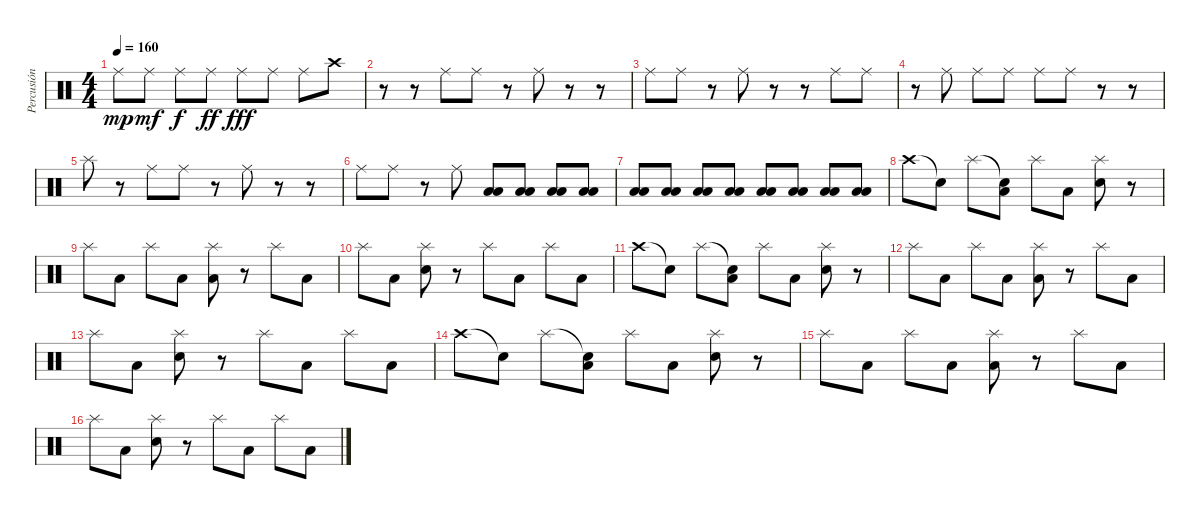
\track ("Percusión" "Percusión") {instrument percussion}
\staff {score}
\articulation defaults
\ts (4 4)
\tempo 160
\clef neutral
\ks c "Ride (middle)".8{dy mp} "Ride (middle)".8{dy mf} "Ride (middle)".8{dy f} "Ride (middle)".8{dy ff} "Ride (middle)".8{dy fff} "Ride (middle)".8 "Ride (middle)".8 "Crash high (hit)".8
|
r.8 r.8 "Ride (middle)".8 "Ride (middle)".8 r.8 "Ride (middle)".8 r.8 r.8 |
"Ride (middle)".8 "Ride (middle)".8 r.8 "Ride (middle)".8 r.8 r.8 "Ride (middle)".8 "Ride (middle)".8 |
r.8 "Ride (middle)".8 "Ride (middle)".8 "Ride (middle)".8 "Ride (middle)".8 "Ride (middle)".8 r.8 r.8 |
"Splash (hit)".8 r.8 "Ride (middle)".8 "Ride (middle)".8 r.8 "Ride (middle)".8 r.8 r.8 |
"Ride (middle)".8 "Ride (middle)".8 r.8 "Ride (middle)".8 ("Low Floor Tom (hit)" "Low Tom (hit)").8 ("Low Floor Tom (hit)" "Low Tom (hit)").8 ("Low Floor Tom (hit)" "Low Tom (hit)").8 ("Low Floor Tom (hit)" "Low Tom (hit)").8 |
("Low Floor Tom (hit)" "Low Tom (hit)").8 ("Low Floor Tom (hit)" "Low Tom (hit)").8 ("Low Floor Tom (hit)" "Low Tom (hit)").8 ("Low Floor Tom (hit)" "Low Tom (hit)").8 ("Low Floor Tom (hit)" "Low Tom (hit)").8 ("Low Floor Tom (hit)" "Low Tom (hit)").8 ("Low Floor Tom (hit)" "Low Tom (hit)").8 ("Low Floor Tom (hit)" "Low Tom (hit)").8 |
"Crash high (hit)".8 "Snare (hit)"{t}.8 "Splash (hit)".8 ("Snare (hit)"{t} "Low Tom (hit)").8 "Splash (hit)".8 "Low Tom (hit)".8 ("Splash (hit)" "Snare (hit) 2").8 r.8 |
"Splash (hit)".8 "Low Tom (hit)".8 "Splash (hit)".8 "Low Tom (hit)".8 ("Splash (hit)" "Low Tom (hit)").8 r.8 "Splash (hit)".8 "Low Tom (hit)".8 |
"Splash (hit)".8 "Low Tom (hit)".8 ("Splash (hit)" "Snare (hit) 2").8 r.8 "Splash (hit)".8 "Low Tom (hit)".8 "Splash (hit)".8 "Low Tom (hit)".8 |
"Crash high (hit)".8 "Snare (hit)"{t}.8 "Splash (hit)".8 ("Snare (hit)"{t} "Low Tom (hit)").8 "Splash (hit)".8 "Low Tom (hit)".8 ("Splash (hit)" "Snare (hit) 2").8 r.8 |
"Splash (hit)".8 "Low Tom (hit)".8 "Splash (hit)".8 "Low Tom (hit)".8 ("Splash (hit)" "Low Tom (hit)").8 r.8 "Splash (hit)".8 "Low Tom (hit)".8 |
"Splash (hit)".8 "Low Tom (hit)".8 ("Splash (hit)" "Snare (hit) 2").8 r.8 "Splash (hit)".8 "Low Tom (hit)".8 "Splash (hit)".8 "Low Tom (hit)".8 |
"Crash high (hit)".8 "Snare (hit)"{t}.8 "Splash (hit)".8 ("Snare (hit)"{t} "Low Tom (hit)").8 "Splash (hit)".8 "Low Tom (hit)".8 ("Splash (hit)" "Snare (hit) 2").8 r.8 |
"Splash (hit)".8 "Low Tom (hit)".8 "Splash (hit)".8 "Low Tom (hit)".8 ("Splash (hit)" "Low Tom (hit)").8 r.8 "Splash (hit)".8 "Low Tom (hit)".8 |
"Splash (hit)".8 "Low Tom (hit)".8 ("Splash (hit)" "Snare (hit) 2").8 r.8 "Splash (hit)".8 "Low Tom (hit)".8 "Splash (hit)".8 "Low Tom (hit)".8
